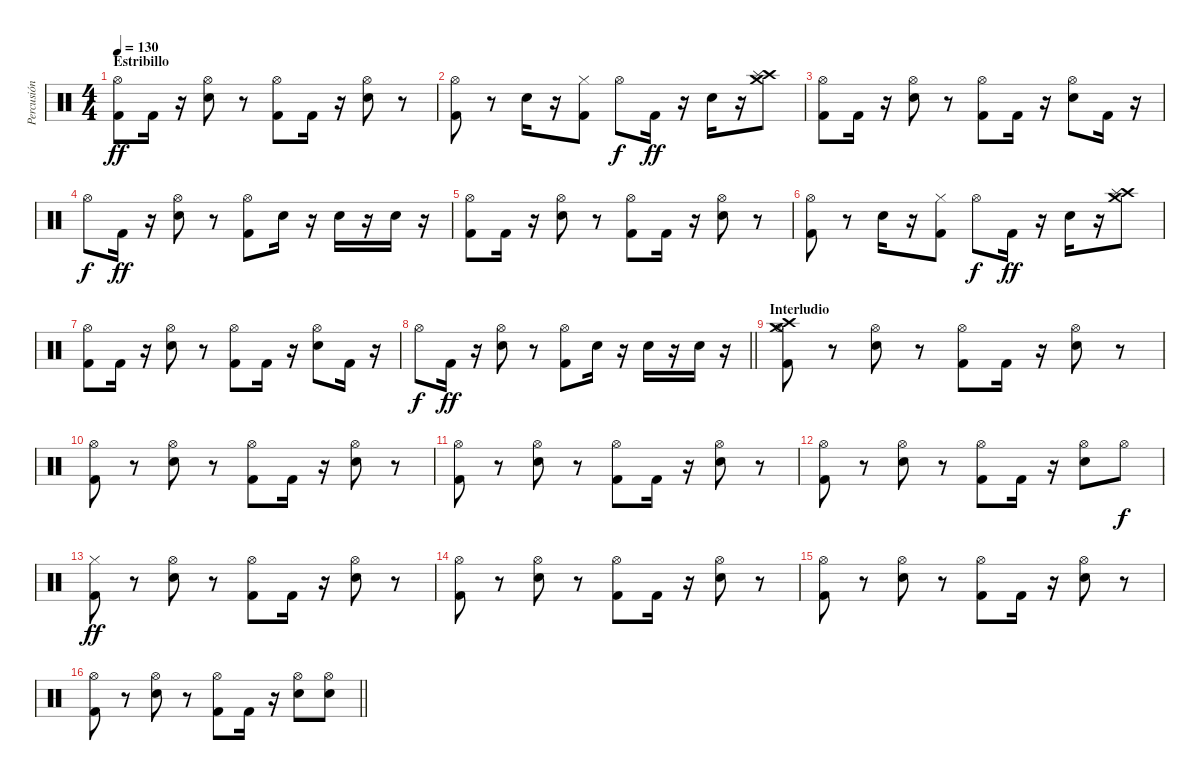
\track ("Percusión" "Percusión") {instrument percussion}
\staff {score}
\articulation defaults
\ts (4 4)
\section ("" "Estribillo")
\tempo 130
\clef neutral
\ks c
("Kick (hit) 2" "Hi-Hat (open)").8{dy ff} "Kick (hit) 2".16 r.16 ("Snare (hit) 2" "Hi-Hat (open)").8 r.8 ("Kick (hit) 2" "Hi-Hat (open)").8 "Kick (hit) 2".16 r.16 ("Snare (hit) 2" "Hi-Hat (open)").8 r.8 |
("Kick (hit) 2" "Hi-Hat (open)").8 r.8 "Snare (hit) 2".16 r.16 ("Kick (hit) 2" "Hi-Hat (closed)").8 "Hi-Hat (open)".8{dy f} "Kick (hit) 2".16{dy ff} r.16 "Snare (hit) 2".16 r.16 ("Crash high (hit)" "Splash (hit)" "Crash medium (hit)").8 |
("Kick (hit) 2" "Hi-Hat (open)").8 "Kick (hit) 2".16 r.16 ("Snare (hit) 2" "Hi-Hat (open)").8 r.8 ("Kick (hit) 2" "Hi-Hat (open)").8 "Kick (hit) 2".16 r.16 ("Snare (hit) 2" "Hi-Hat (open)").8 "Kick (hit) 2".16 r.16 |
"Hi-Hat (open)".8{dy f} "Kick (hit) 2".16{dy ff} r.16 ("Snare (hit) 2" "Hi-Hat (open)").8 r.8 ("Kick (hit) 2" "Hi-Hat (open)").8 "Snare (hit) 2".16 r.16 "Snare (hit) 2".16 r.16 "Snare (hit) 2".16 r.16 |
("Kick (hit) 2" "Hi-Hat (open)").8 "Kick (hit) 2".16 r.16 ("Snare (hit) 2" "Hi-Hat (open)").8 r.8 ("Kick (hit) 2" "Hi-Hat (open)").8 "Kick (hit) 2".16 r.16 ("Snare (hit) 2" "Hi-Hat (open)").8 r.8 |
("Kick (hit) 2" "Hi-Hat (open)").8 r.8 "Snare (hit) 2".16 r.16 ("Kick (hit) 2" "Hi-Hat (closed)").8 "Hi-Hat (open)".8{dy f} "Kick (hit) 2".16{dy ff} r.16 "Snare (hit) 2".16 r.16 ("Crash high (hit)" "Splash (hit)" "Crash medium (hit)").8 |
("Kick (hit) 2" "Hi-Hat (open)").8 "Kick (hit) 2".16 r.16 ("Snare (hit) 2" "Hi-Hat (open)").8 r.8 ("Kick (hit) 2" "Hi-Hat (open)").8 "Kick (hit) 2".16 r.16 ("Snare (hit) 2" "Hi-Hat (open)").8 "Kick (hit) 2".16 r.16 |
\barLineRight lightlight "Hi-Hat (open)".8{dy f} "Kick (hit) 2".16{dy ff}
r.16 ("Snare (hit) 2" "Hi-Hat (open)").8 r.8 ("Kick (hit) 2" "Hi-Hat (open)").8 "Snare (hit) 2".16 r.16 "Snare (hit) 2".16 r.16 "Snare (hit) 2".16 r.16 |
\section ("" "Interludio")
("Kick (hit) 2" "Hi-Hat (open)" "Crash high (hit)" "Crash medium (hit)").8 r.8 ("Snare (hit) 2" "Hi-Hat (open)").8 r.8 ("Kick (hit) 2" "Hi-Hat (open)").8 "Kick (hit) 2".16 r.16 ("Snare (hit) 2" "Hi-Hat (open)").8 r.8 |
("Kick (hit) 2" "Hi-Hat (open)").8 r.8 ("Snare (hit) 2" "Hi-Hat (open)").8 r.8 ("Kick (hit) 2" "Hi-Hat (open)").8 "Kick (hit) 2".16 r.16 ("Snare (hit) 2" "Hi-Hat (open)").8 r.8 |
("Kick (hit) 2" "Hi-Hat (open)").8 r.8 ("Snare (hit) 2" "Hi-Hat (open)").8 r.8 ("Kick (hit) 2" "Hi-Hat (open)").8 "Kick (hit) 2".16 r.16 ("Snare (hit) 2" "Hi-Hat (open)").8 r.8 |
("Kick (hit) 2" "Hi-Hat (open)").8 r.8 ("Snare (hit) 2" "Hi-Hat (open)").8 r.8 ("Kick (hit) 2" "Hi-Hat (open)").8 "Kick (hit) 2".16 r.16 ("Snare (hit) 2" "Hi-Hat (open)").8 "Hi-Hat (open)".8{dy f} |
("Kick (hit) 2" "Hi-Hat (closed)").8{dy ff} r.8 ("Snare (hit) 2" "Hi-Hat (open)").8 r.8 ("Kick (hit) 2" "Hi-Hat (open)").8 "Kick (hit) 2".16 r.16 ("Snare (hit) 2" "Hi-Hat (open)").8 r.8 |
("Kick (hit) 2" "Hi-Hat (open)").8 r.8 ("Snare (hit) 2" "Hi-Hat (open)").8 r.8 ("Kick (hit) 2" "Hi-Hat (open)").8 "Kick (hit) 2".16 r.16 ("Snare (hit) 2" "Hi-Hat (open)").8 r.8 |
("Kick (hit) 2" "Hi-Hat (open)").8 r.8 ("Snare (hit) 2" "Hi-Hat (open)").8 r.8 ("Kick (hit) 2" "Hi-Hat (open)").8 "Kick (hit) 2".16 r.16 ("Snare (hit) 2" "Hi-Hat (open)").8 r.8 |
\barLineRight lightlight
("Kick (hit) 2" "Hi-Hat (open)").8 r.8 ("Snare (hit) 2" "Hi-Hat (open)").8 r.8 ("Kick (hit) 2" "Hi-Hat (open)").8 "Kick (hit) 2".16 r.16 ("Snare (hit) 2" "Hi-Hat (open)").8 ("Snare (hit) 2" "Hi-Hat (open)").8
